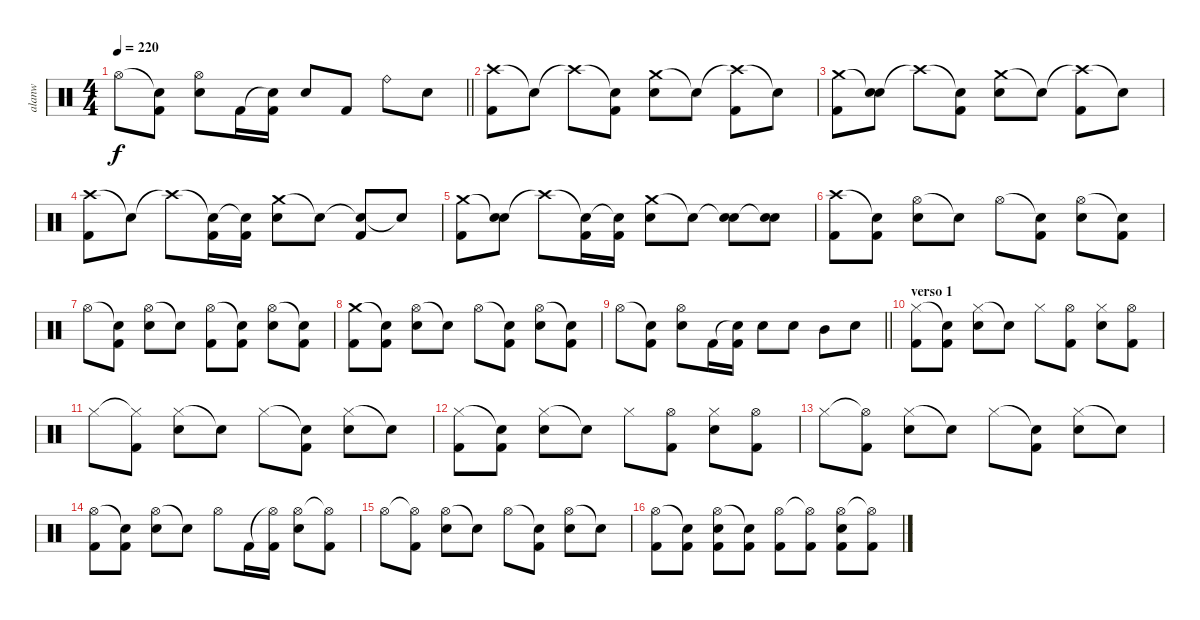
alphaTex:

\track ("alanw" "alanw") {instrument percussion}
\staff {score}
\articulation defaults
\ts (4 4)
\tempo 220
\clef neutral
\barLineRight lightlight
\ks c "Hi-Hat (open)".8{dy f}
("Snare (hit)"{t} "Kick (hit) 2").8 ("Hi-Hat (open)" "Electric Snare (hit)").8 "Kick (hit) 2".16 ("Snare (hit)"{t} "Kick (hit) 2").16 "Electric Snare (hit)".8 "Kick (hit) 2".8 "Ride (bell)".8 "Electric Snare (hit)".8 |
\section ("" ".")
("Crash high (hit)" "Kick (hit) 2").8 "Snare (hit)"{t}.8 "Crash high (hit)"{t}.8 ("Snare (hit)"{t} "Kick (hit) 2").8 ("Crash medium (hit)" "Electric Snare (hit)").8 "Snare (hit)"{t}.8 ("Crash high (hit)"{t} "Kick (hit) 2").8 "Snare (hit)"{t}.8 |
("Crash medium (hit)" "Kick (hit) 2").8 ("Snare (hit)"{t} "Electric Snare (hit)").8 "Crash high (hit)"{t}.8 ("Snare (hit)"{t} "Kick (hit) 2").8 ("Crash medium (hit)" "Electric Snare (hit)").8 "Snare (hit)"{t}.8 ("Crash high (hit)"{t} "Kick (hit) 2").8 "Snare (hit)"{t}.8 |
("Crash high (hit)" "Kick (hit) 2").8 "Snare (hit)"{t}.8 "Crash high (hit)"{t}.8 ("Snare (hit)"{t} "Kick (hit) 2").16 ("Snare (hit)"{t} "Kick (hit) 2").16 ("Crash medium (hit)" "Electric Snare (hit)").8 "Snare (hit)"{t}.8 ("Snare (hit)"{t} "Kick (hit) 2").8 "Snare (hit)"{t}.8 |
("Crash medium (hit)" "Kick (hit) 2").8 ("Snare (hit)"{t} "Electric Snare (hit)").8 "Crash high (hit)"{t}.8 ("Snare (hit)"{t} "Kick (hit) 2").16 ("Snare (hit)"{t} "Kick (hit) 2").16 ("Crash medium (hit)" "Electric Snare (hit)").8 "Snare (hit)"{t}.8 ("Snare (hit)"{t} "Electric Snare (hit)").8 ("Snare (hit)"{t} "Electric Snare (hit)").8 |
("Crash high (hit)" "Kick (hit) 2").8 ("Snare (hit)"{t} "Kick (hit) 2").8 ("Hi-Hat (open)" "Electric Snare (hit)").8 "Snare (hit)"{t}.8 "Hi-Hat (open)".8 ("Snare (hit)"{t} "Kick (hit) 2").8 ("Hi-Hat (open)" "Electric Snare (hit)").8 ("Snare (hit)"{t} "Kick (hit) 2").8 |
"Hi-Hat (open)".8 ("Snare (hit)"{t} "Kick (hit) 2").8 ("Hi-Hat (open)" "Electric Snare (hit)").8 "Snare (hit)"{t}.8 ("Hi-Hat (open)" "Kick (hit) 2").8 ("Snare (hit)"{t} "Kick (hit) 2").8 ("Hi-Hat (open)" "Electric Snare (hit)").8 ("Snare (hit)"{t} "Kick (hit) 2").8 |
("Crash medium (hit)" "Kick (hit) 2").8 ("Snare (hit)"{t} "Kick (hit) 2").8 ("Hi-Hat (open)" "Electric Snare (hit)").8 "Snare (hit)"{t}.8 "Hi-Hat (open)".8 ("Snare (hit)"{t} "Kick (hit) 2").8 ("Hi-Hat (open)" "Electric Snare (hit)").8 ("Snare (hit)"{t} "Kick (hit) 2").8 |
\barLineRight lightlight "Hi-Hat (open)".8
("Snare (hit)"{t} "Kick (hit) 2").8 ("Hi-Hat (open)" "Electric Snare (hit)").8 "Kick (hit) 2".16 ("Snare (hit)"{t} "Kick (hit) 2").16 "Electric Snare (hit)".8 "Electric Snare (hit)".8 "Mid Tom (hit)".8 "Electric Snare (hit)".8 |
\section ("" "verso 1")
("Hi-Hat (closed)" "Kick (hit) 2").8 ("Snare (hit)"{t} "Kick (hit) 2").8 ("Hi-Hat (closed)" "Electric Snare (hit)").8 "Snare (hit)"{t}.8 "Hi-Hat (closed)".8 ("Hi-Hat (open)" "Kick (hit) 2").8 ("Hi-Hat (closed)" "Electric Snare (hit)").8 ("Hi-Hat (open)" "Kick (hit) 2").8 |
"Hi-Hat (closed)".8 ("Hi-Hat (closed)"{t} "Kick (hit) 2").8 ("Hi-Hat (closed)" "Electric Snare (hit)").8 "Snare (hit)"{t}.8 "Hi-Hat (closed)".8 ("Snare (hit)"{t} "Kick (hit) 2").8 ("Hi-Hat (closed)" "Electric Snare (hit)").8 "Snare (hit)"{t}.8 |
("Hi-Hat (closed)" "Kick (hit) 2").8 ("Snare (hit)"{t} "Kick (hit) 2").8 ("Hi-Hat (closed)" "Electric Snare (hit)").8 "Snare (hit)"{t}.8 "Hi-Hat (closed)".8 ("Hi-Hat (open)" "Kick (hit) 2").8 ("Hi-Hat (closed)" "Electric Snare (hit)").8 ("Hi-Hat (open)" "Kick (hit) 2").8 |
"Hi-Hat (closed)".8 ("Hi-Hat (open)"{t} "Kick (hit) 2").8 ("Hi-Hat (closed)" "Electric Snare (hit)").8 "Snare (hit)"{t}.8 "Hi-Hat (closed)".8 ("Snare (hit)"{t} "Kick (hit) 2").8 ("Hi-Hat (closed)" "Electric Snare (hit)").8 "Snare (hit)"{t}.8 |
("Hi-Hat (open)" "Kick (hit) 2").8 ("Snare (hit)"{t} "Kick (hit) 2").8 ("Hi-Hat (open)" "Electric Snare (hit)").8 "Snare (hit)"{t}.8 "Hi-Hat (open)".8 "Kick (hit) 2".16 ("Hi-Hat (open)"{t} "Kick (hit) 2").16 ("Hi-Hat (open)" "Electric Snare (hit)").8 ("Hi-Hat (open)"{t} "Kick (hit) 2").8 |
"Hi-Hat (open)".8 ("Hi-Hat (open)"{t} "Kick (hit) 2").8 ("Hi-Hat (open)" "Electric Snare (hit)").8 "Snare (hit)"{t}.8 "Hi-Hat (open)".8 ("Snare (hit)"{t} "Kick (hit) 2").8 ("Hi-Hat (open)" "Electric Snare (hit)").8 "Snare (hit)"{t}.8 |
("Hi-Hat (open)" "Kick (hit) 2").8 ("Snare (hit)"{t} "Kick (hit) 2").8 ("Hi-Hat (open)" "Electric Snare (hit)" "Kick (hit) 2").8 ("Snare (hit)"{t} "Kick (hit) 2").8 ("Hi-Hat (open)" "Kick (hit) 2").8 ("Hi-Hat (open)"{t} "Kick (hit) 2").8 ("Hi-Hat (open)" "Electric Snare (hit)" "Kick (hit) 2").8 ("Hi-Hat (open)"{t} "Kick (hit) 2").8
